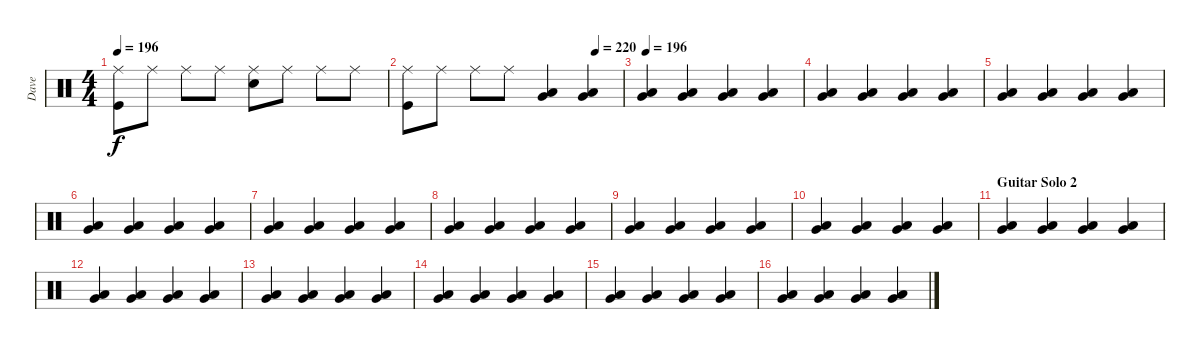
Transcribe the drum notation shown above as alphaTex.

\track ("Dave" "Dave") {instrument percussion}
\staff {score}
\articulation defaults
\ts (4 4)
\tempo 196
\clef neutral
\ks c
("Ride (middle)" "Kick (hit)").8{dy f} "Ride (middle)".8 "Ride (middle)".8 "Ride (middle)".8 ("Ride (middle)" "Snare (hit) 2").8 "Ride (middle)".8 "Ride (middle)".8 "Ride (middle)".8 |
\tempo (220 0.875)
("Ride (middle)" "Kick (hit)").8 "Ride (middle)".8 "Ride (middle)".8 "Ride (middle)".8 ("Low Floor Tom (hit)" "Very Low Tom (hit)").4 ("Low Floor Tom (hit)" "Very Low Tom (hit)").4 |
\tempo 196
("Very Low Tom (hit)" "Low Floor Tom (hit)").4 ("Very Low Tom (hit)" "Low Floor Tom (hit)").4 ("Very Low Tom (hit)" "Low Floor Tom (hit)").4 ("Very Low Tom (hit)" "Low Floor Tom (hit)").4 |
("Very Low Tom (hit)" "Low Floor Tom (hit)").4 ("Very Low Tom (hit)" "Low Floor Tom (hit)").4 ("Very Low Tom (hit)" "Low Floor Tom (hit)").4 ("Very Low Tom (hit)" "Low Floor Tom (hit)").4 |
("Very Low Tom (hit)" "Low Floor Tom (hit)").4 ("Very Low Tom (hit)" "Low Floor Tom (hit)").4 ("Very Low Tom (hit)" "Low Floor Tom (hit)").4 ("Very Low Tom (hit)" "Low Floor Tom (hit)").4 |
("Very Low Tom (hit)" "Low Floor Tom (hit)").4 ("Very Low Tom (hit)" "Low Floor Tom (hit)").4 ("Very Low Tom (hit)" "Low Floor Tom (hit)").4 ("Very Low Tom (hit)" "Low Floor Tom (hit)").4 |
("Very Low Tom (hit)" "Low Floor Tom (hit)").4 ("Very Low Tom (hit)" "Low Floor Tom (hit)").4 ("Very Low Tom (hit)" "Low Floor Tom (hit)").4 ("Very Low Tom (hit)" "Low Floor Tom (hit)").4 |
("Very Low Tom (hit)" "Low Floor Tom (hit)").4 ("Very Low Tom (hit)" "Low Floor Tom (hit)").4 ("Very Low Tom (hit)" "Low Floor Tom (hit)").4 ("Very Low Tom (hit)" "Low Floor Tom (hit)").4 |
("Very Low Tom (hit)" "Low Floor Tom (hit)").4 ("Very Low Tom (hit)" "Low Floor Tom (hit)").4 ("Very Low Tom (hit)" "Low Floor Tom (hit)").4 ("Very Low Tom (hit)" "Low Floor Tom (hit)").4 |
("Very Low Tom (hit)" "Low Floor Tom (hit)").4 ("Very Low Tom (hit)" "Low Floor Tom (hit)").4 ("Very Low Tom (hit)" "Low Floor Tom (hit)").4 ("Very Low Tom (hit)" "Low Floor Tom (hit)").4 |
\section ("" "Guitar Solo 2")
("Very Low Tom (hit)" "Low Floor Tom (hit)").4 ("Very Low Tom (hit)" "Low Floor Tom (hit)").4 ("Very Low Tom (hit)" "Low Floor Tom (hit)").4 ("Very Low Tom (hit)" "Low Floor Tom (hit)").4 |
("Very Low Tom (hit)" "Low Floor Tom (hit)").4 ("Very Low Tom (hit)" "Low Floor Tom (hit)").4 ("Very Low Tom (hit)" "Low Floor Tom (hit)").4 ("Very Low Tom (hit)" "Low Floor Tom (hit)").4 |
("Very Low Tom (hit)" "Low Floor Tom (hit)").4 ("Very Low Tom (hit)" "Low Floor Tom (hit)").4 ("Very Low Tom (hit)" "Low Floor Tom (hit)").4 ("Very Low Tom (hit)" "Low Floor Tom (hit)").4 |
("Very Low Tom (hit)" "Low Floor Tom (hit)").4 ("Very Low Tom (hit)" "Low Floor Tom (hit)").4 ("Very Low Tom (hit)" "Low Floor Tom (hit)").4 ("Very Low Tom (hit)" "Low Floor Tom (hit)").4 |
("Very Low Tom (hit)" "Low Floor Tom (hit)").4 ("Very Low Tom (hit)" "Low Floor Tom (hit)").4 ("Very Low Tom (hit)" "Low Floor Tom (hit)").4 ("Very Low Tom (hit)" "Low Floor Tom (hit)").4 |
("Very Low Tom (hit)" "Low Floor Tom (hit)").4 ("Very Low Tom (hit)" "Low Floor Tom (hit)").4 ("Very Low Tom (hit)" "Low Floor Tom (hit)").4 ("Very Low Tom (hit)" "Low Floor Tom (hit)").4
